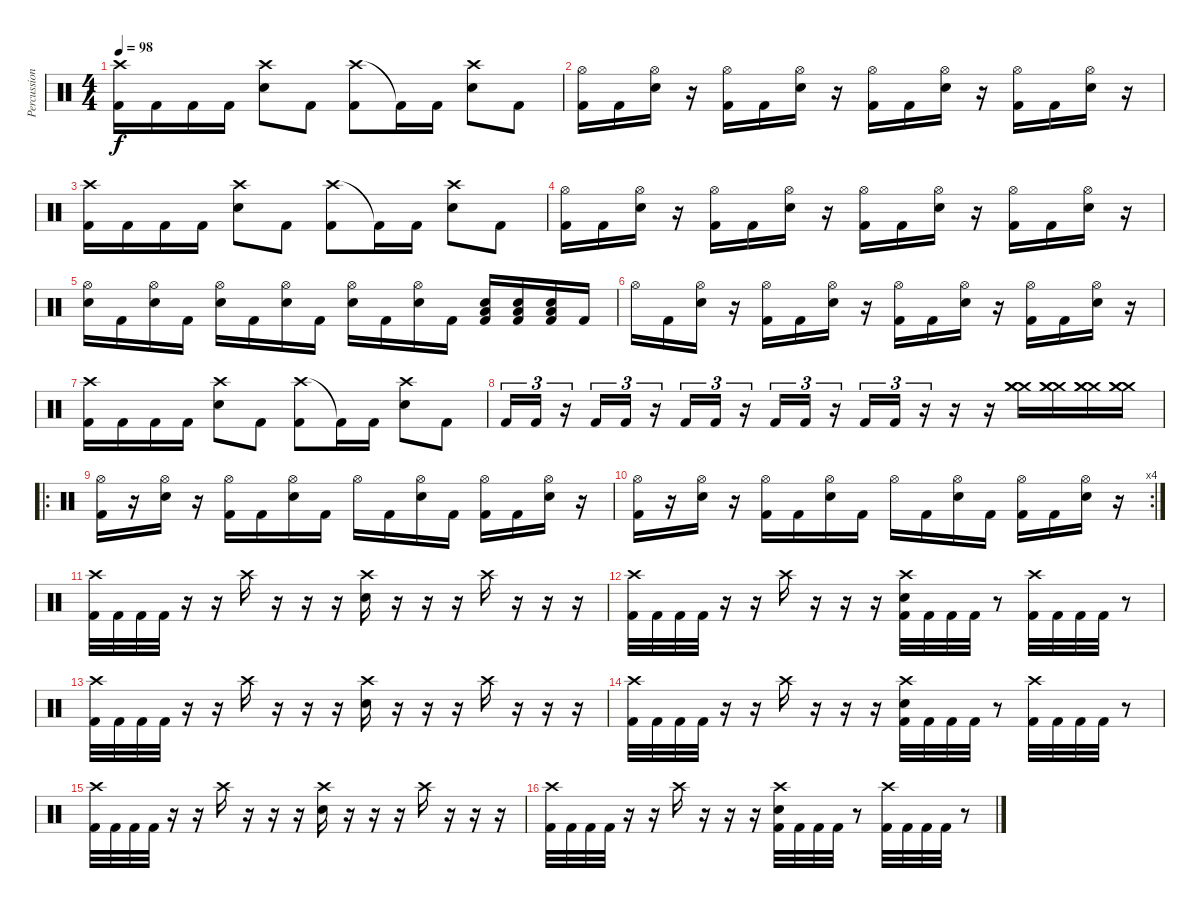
\track ("Percussion" "Percussion") {instrument percussion}
\staff {score}
\articulation defaults
\ts (4 4)
\tempo 98
\clef neutral
\ks c
("Crash high (hit)" "Kick (hit) 2").16{dy f} "Kick (hit) 2".16 "Kick (hit) 2".16 "Kick (hit) 2".16 ("Crash high (hit)" "Snare (hit) 2").8 "Kick (hit) 2".8 ("Crash high (hit)" "Kick (hit) 2").8 "Kick (hit) 2"{t}.16 "Kick (hit) 2".16 ("Crash high (hit)" "Snare (hit) 2").8 "Kick (hit) 2".8 |
("Hi-Hat (open)" "Kick (hit) 2").16 "Kick (hit) 2".16 ("Hi-Hat (open)" "Snare (hit) 2").16 r.16 ("Hi-Hat (open)" "Kick (hit) 2").16 "Kick (hit) 2".16 ("Hi-Hat (open)" "Snare (hit) 2").16 r.16 ("Hi-Hat (open)" "Kick (hit) 2").16 "Kick (hit) 2".16 ("Hi-Hat (open)" "Snare (hit) 2").16 r.16 ("Hi-Hat (open)" "Kick (hit) 2").16 "Kick (hit) 2".16 ("Hi-Hat (open)" "Snare (hit) 2").16 r.16 |
("Crash high (hit)" "Kick (hit) 2").16 "Kick (hit) 2".16 "Kick (hit) 2".16 "Kick (hit) 2".16 ("Crash high (hit)" "Snare (hit) 2").8 "Kick (hit) 2".8 ("Crash high (hit)" "Kick (hit) 2").8 "Kick (hit) 2"{t}.16 "Kick (hit) 2".16 ("Crash high (hit)" "Snare (hit) 2").8 "Kick (hit) 2".8 |
("Hi-Hat (open)" "Kick (hit) 2").16 "Kick (hit) 2".16 ("Hi-Hat (open)" "Snare (hit) 2").16 r.16 ("Hi-Hat (open)" "Kick (hit) 2").16 "Kick (hit) 2".16 ("Hi-Hat (open)" "Snare (hit) 2").16 r.16 ("Hi-Hat (open)" "Kick (hit) 2").16 "Kick (hit) 2".16 ("Hi-Hat (open)" "Snare (hit) 2").16 r.16 ("Hi-Hat (open)" "Kick (hit) 2").16 "Kick (hit) 2".16 ("Hi-Hat (open)" "Snare (hit) 2").16 r.16 |
("Hi-Hat (open)" "Snare (hit) 2").16 "Kick (hit) 2".16 ("Hi-Hat (open)" "Snare (hit) 2").16 "Kick (hit) 2".16 ("Hi-Hat (open)" "Snare (hit) 2").16 "Kick (hit) 2".16 ("Hi-Hat (open)" "Snare (hit) 2").16 "Kick (hit) 2".16 ("Hi-Hat (open)" "Snare (hit) 2").16 "Kick (hit) 2".16 ("Hi-Hat (open)" "Snare (hit) 2").16 "Kick (hit) 2".16 ("Low Floor Tom (hit)" "Snare (hit) 2" "Kick (hit) 2").16 ("Low Floor Tom (hit)" "Snare (hit) 2" "Kick (hit) 2").16 ("Low Floor Tom (hit)" "Snare (hit) 2" "Kick (hit) 2").16 "Kick (hit) 2".16 |
"Hi-Hat (open)".16 "Kick (hit) 2".16 ("Hi-Hat (open)" "Snare (hit) 2").16 r.16 ("Hi-Hat (open)" "Kick (hit) 2").16 "Kick (hit) 2".16 ("Hi-Hat (open)" "Snare (hit) 2").16 r.16 ("Hi-Hat (open)" "Kick (hit) 2").16 "Kick (hit) 2".16 ("Hi-Hat (open)" "Snare (hit) 2").16 r.16 ("Hi-Hat (open)" "Kick (hit) 2").16 "Kick (hit) 2".16 ("Hi-Hat (open)" "Snare (hit) 2").16 r.16 |
("Crash high (hit)" "Kick (hit) 2").16 "Kick (hit) 2".16 "Kick (hit) 2".16 "Kick (hit) 2".16 ("Crash high (hit)" "Snare (hit) 2").8 "Kick (hit) 2".8 ("Crash high (hit)" "Kick (hit) 2").8 "Kick (hit) 2"{t}.16 "Kick (hit) 2".16 ("Crash high (hit)" "Snare (hit) 2").8 "Kick (hit) 2".8 |
"Kick (hit) 2".16{tu (3 2)} "Kick (hit) 2".16{tu (3 2)} r.16{tu (3 2)} "Kick (hit) 2".16{tu (3 2)} "Kick (hit) 2".16{tu (3 2)} r.16{tu (3 2)} "Kick (hit) 2".16{tu (3 2)} "Kick (hit) 2".16{tu (3 2)} r.16{tu (3 2)} "Kick (hit) 2".16{tu (3 2)} "Kick (hit) 2".16{tu (3 2)} r.16{tu (3 2)} "Kick (hit) 2".16{tu (3 2)} "Kick (hit) 2".16{tu (3 2)} r.16{tu (3 2)} r.16 r.16 ("Crash medium (hit)" "Crash medium (hit)" "Crash medium (hit)").16 ("Crash medium (hit)" "Crash medium (hit)" "Crash medium (hit)").16 ("Crash medium (hit)" "Crash medium (hit)" "Crash medium (hit)").16 ("Crash medium (hit)" "Crash medium (hit)" "Crash medium (hit)").16 |
\ro
("Hi-Hat (open)" "Kick (hit) 2").16 r.16 ("Hi-Hat (open)" "Snare (hit) 2").16 r.16 ("Hi-Hat (open)" "Kick (hit) 2").16 "Kick (hit) 2".16 ("Hi-Hat (open)" "Snare (hit) 2").16 "Kick (hit) 2".16 "Hi-Hat (open)".16 "Kick (hit) 2".16 ("Hi-Hat (open)" "Snare (hit) 2").16 "Kick (hit) 2".16 ("Hi-Hat (open)" "Kick (hit) 2").16 "Kick (hit) 2".16 ("Hi-Hat (open)" "Snare (hit) 2").16 r.16 |
\rc 4
("Hi-Hat (open)" "Kick (hit) 2").16 r.16 ("Hi-Hat (open)" "Snare (hit) 2").16 r.16 ("Hi-Hat (open)" "Kick (hit) 2").16 "Kick (hit) 2".16 ("Hi-Hat (open)" "Snare (hit) 2").16 "Kick (hit) 2".16 "Hi-Hat (open)".16 "Kick (hit) 2".16 ("Hi-Hat (open)" "Snare (hit) 2").16 "Kick (hit) 2".16 ("Hi-Hat (open)" "Kick (hit) 2").16 "Kick (hit) 2".16 ("Hi-Hat (open)" "Snare (hit) 2").16 r.16 |
("Crash high (hit)" "Kick (hit) 2").32 "Kick (hit) 2".32 "Kick (hit) 2".32 "Kick (hit) 2".32 r.16 r.16 "Crash high (hit)".16 r.16 r.16 r.16 ("Snare (hit) 2" "Crash high (hit)").16 r.16 r.16 r.16 "Crash high (hit)".16 r.16 r.16 r.16 |
("Crash high (hit)" "Kick (hit) 2").32 "Kick (hit) 2".32 "Kick (hit) 2".32 "Kick (hit) 2".32 r.16 r.16 "Crash high (hit)".16 r.16 r.16 r.16 ("Snare (hit) 2" "Crash high (hit)" "Kick (hit) 2").32 "Kick (hit) 2".32 "Kick (hit) 2".32 "Kick (hit) 2".32 r.8 ("Crash high (hit)" "Kick (hit) 2").32 "Kick (hit) 2".32 "Kick (hit) 2".32 "Kick (hit) 2".32 r.8 |
("Crash high (hit)" "Kick (hit) 2").32 "Kick (hit) 2".32 "Kick (hit) 2".32 "Kick (hit) 2".32 r.16 r.16 "Crash high (hit)".16 r.16 r.16 r.16 ("Snare (hit) 2" "Crash high (hit)").16 r.16 r.16 r.16 "Crash high (hit)".16 r.16 r.16 r.16 |
("Crash high (hit)" "Kick (hit) 2").32 "Kick (hit) 2".32 "Kick (hit) 2".32 "Kick (hit) 2".32 r.16 r.16 "Crash high (hit)".16 r.16 r.16 r.16 ("Snare (hit) 2" "Crash high (hit)" "Kick (hit) 2").32 "Kick (hit) 2".32 "Kick (hit) 2".32 "Kick (hit) 2".32 r.8 ("Crash high (hit)" "Kick (hit) 2").32 "Kick (hit) 2".32 "Kick (hit) 2".32 "Kick (hit) 2".32 r.8 |
("Crash high (hit)" "Kick (hit) 2").32 "Kick (hit) 2".32 "Kick (hit) 2".32 "Kick (hit) 2".32 r.16 r.16 "Crash high (hit)".16 r.16 r.16 r.16 ("Snare (hit) 2" "Crash high (hit)").16 r.16 r.16 r.16 "Crash high (hit)".16 r.16 r.16 r.16 |
("Crash high (hit)" "Kick (hit) 2").32 "Kick (hit) 2".32 "Kick (hit) 2".32 "Kick (hit) 2".32 r.16 r.16 "Crash high (hit)".16 r.16 r.16 r.16 ("Snare (hit) 2" "Crash high (hit)" "Kick (hit) 2").32 "Kick (hit) 2".32 "Kick (hit) 2".32 "Kick (hit) 2".32 r.8 ("Crash high (hit)" "Kick (hit) 2").32 "Kick (hit) 2".32 "Kick (hit) 2".32 "Kick (hit) 2".32 r.8
